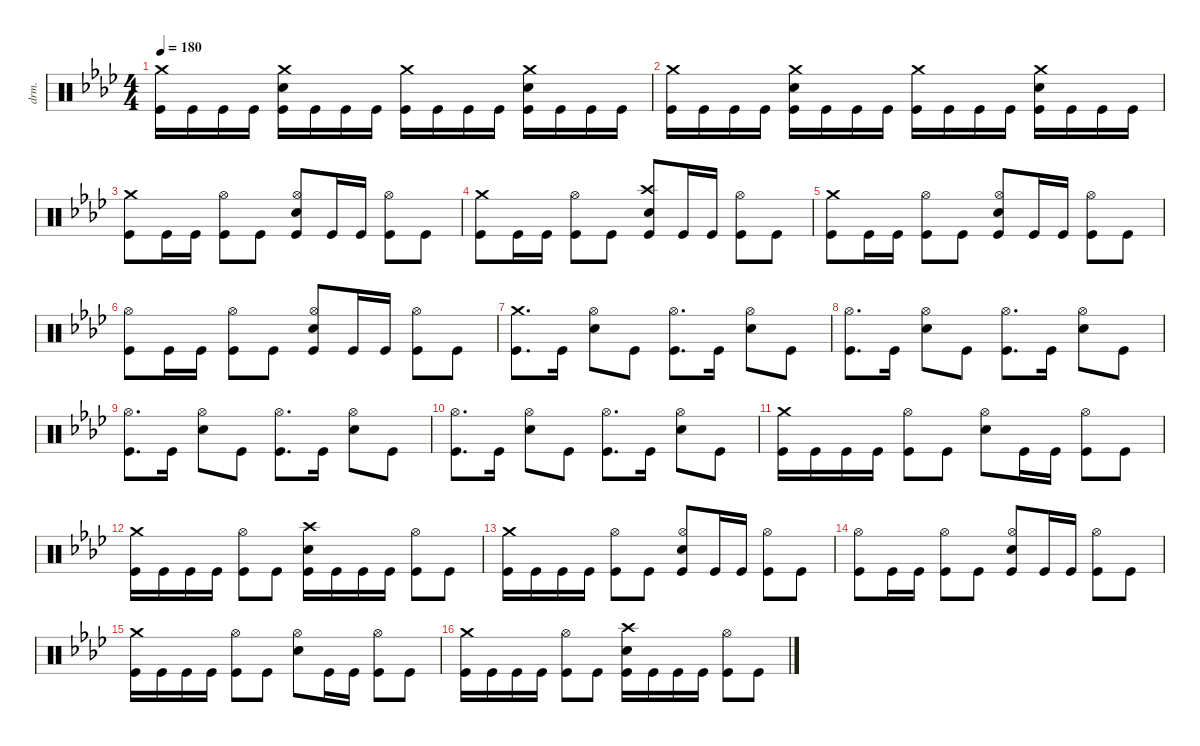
\defaultSystemsLayout 4
\hideDynamics
\bracketExtendMode nobrackets
\otherSystemsTrackNameOrientation horizontal
\track ("Percussion" "drm.") {instrument percussion}
\staff {score}
\articulation defaults
\ts (4 4)
\tempo 180
\clef neutral
\ks fminor
("Crash medium (hit)"{acc forcenatural} "Kick (hit)"{acc forcenatural}).16{dy f beam Down} "Kick (hit)"{acc forcenatural}.16{beam Down} "Kick (hit)"{acc forcenatural}.16{beam Down} "Kick (hit)"{acc forcenatural}.16{beam Down} ("Crash medium (hit)"{acc forcenatural} "Snare (hit) 2"{acc forcenatural} "Kick (hit)"{acc forcenatural}).16{beam Down} "Kick (hit)"{acc forcenatural}.16{beam Down} "Kick (hit)"{acc forcenatural}.16{beam Down} "Kick (hit)"{acc forcenatural}.16{beam Down} ("Crash medium (hit)"{acc forcenatural} "Kick (hit)"{acc forcenatural}).16{beam Down} "Kick (hit)"{acc forcenatural}.16{beam Down} "Kick (hit)"{acc forcenatural}.16{beam Down} "Kick (hit)"{acc forcenatural}.16{beam Down} ("Crash medium (hit)"{acc forcenatural} "Snare (hit) 2"{acc forcenatural} "Kick (hit)"{acc forcenatural}).16{beam Down} "Kick (hit)"{acc forcenatural}.16{beam Down} "Kick (hit)"{acc forcenatural}.16{beam Down} "Kick (hit)"{acc forcenatural}.16{beam Down} |
("Crash medium (hit)"{acc forcenatural} "Kick (hit)"{acc forcenatural}).16{beam Down} "Kick (hit)"{acc forcenatural}.16{beam Down} "Kick (hit)"{acc forcenatural}.16{beam Down} "Kick (hit)"{acc forcenatural}.16{beam Down} ("Crash medium (hit)"{acc forcenatural} "Snare (hit) 2"{acc forcenatural} "Kick (hit)"{acc forcenatural}).16{beam Down} "Kick (hit)"{acc forcenatural}.16{beam Down} "Kick (hit)"{acc forcenatural}.16{beam Down} "Kick (hit)"{acc forcenatural}.16{beam Down} ("Crash medium (hit)"{acc forcenatural} "Kick (hit)"{acc forcenatural}).16{beam Down} "Kick (hit)"{acc forcenatural}.16{beam Down} "Kick (hit)"{acc forcenatural}.16{beam Down} "Kick (hit)"{acc forcenatural}.16{beam Down} ("Crash medium (hit)"{acc forcenatural} "Snare (hit) 2"{acc forcenatural} "Kick (hit)"{acc forcenatural}).16{beam Down} "Kick (hit)"{acc forcenatural}.16{beam Down} "Kick (hit)"{acc forcenatural}.16{beam Down} "Kick (hit)"{acc forcenatural}.16{beam Down} |
("Crash medium (hit)"{acc forcenatural} "Kick (hit)"{acc forcenatural}).8{beam Down} "Kick (hit)"{acc forcenatural}.16{beam Down} "Kick (hit)"{acc forcenatural}.16{beam Down} ("Hi-Hat (open)"{acc forcenatural} "Kick (hit)"{acc forcenatural}).8{beam Down} "Kick (hit)"{acc forcenatural}.8{beam Down} ("Hi-Hat (open)"{acc forcenatural} "Snare (hit) 2"{acc forcenatural} "Kick (hit)"{acc forcenatural}).8{beam Up} "Kick (hit)"{acc forcenatural}.16{beam Up} "Kick (hit)"{acc forcenatural}.16{beam Up} ("Hi-Hat (open)"{acc forcenatural} "Kick (hit)"{acc forcenatural}).8{beam Down} "Kick (hit)"{acc forcenatural}.8{beam Down} |
("Crash medium (hit)"{acc forcenatural} "Kick (hit)"{acc forcenatural}).8{beam Down} "Kick (hit)"{acc forcenatural}.16{beam Down} "Kick (hit)"{acc forcenatural}.16{beam Down} ("Hi-Hat (open)"{acc forcenatural} "Kick (hit)"{acc forcenatural}).8{beam Down} "Kick (hit)"{acc forcenatural}.8{beam Down} ("Crash high (hit)"{acc forcenatural} "Snare (hit) 2"{acc forcenatural} "Kick (hit)"{acc forcenatural}).8{beam Up} "Kick (hit)"{acc forcenatural}.16{beam Up} "Kick (hit)"{acc forcenatural}.16{beam Up} ("Hi-Hat (open)"{acc forcenatural} "Kick (hit)"{acc forcenatural}).8{beam Down} "Kick (hit)"{acc forcenatural}.8{beam Down} |
("Crash medium (hit)"{acc forcenatural} "Kick (hit)"{acc forcenatural}).8{beam Down} "Kick (hit)"{acc forcenatural}.16{beam Down} "Kick (hit)"{acc forcenatural}.16{beam Down} ("Hi-Hat (open)"{acc forcenatural} "Kick (hit)"{acc forcenatural}).8{beam Down} "Kick (hit)"{acc forcenatural}.8{beam Down} ("Hi-Hat (open)"{acc forcenatural} "Snare (hit) 2"{acc forcenatural} "Kick (hit)"{acc forcenatural}).8{beam Up} "Kick (hit)"{acc forcenatural}.16{beam Up} "Kick (hit)"{acc forcenatural}.16{beam Up} ("Hi-Hat (open)"{acc forcenatural} "Kick (hit)"{acc forcenatural}).8{beam Down} "Kick (hit)"{acc forcenatural}.8{beam Down} |
("Hi-Hat (open)"{acc forcenatural} "Kick (hit)"{acc forcenatural}).8{beam Down} "Kick (hit)"{acc forcenatural}.16{beam Down} "Kick (hit)"{acc forcenatural}.16{beam Down} ("Hi-Hat (open)"{acc forcenatural} "Kick (hit)"{acc forcenatural}).8{beam Down} "Kick (hit)"{acc forcenatural}.8{beam Down} ("Hi-Hat (open)"{acc forcenatural} "Snare (hit) 2"{acc forcenatural} "Kick (hit)"{acc forcenatural}).8{beam Up} "Kick (hit)"{acc forcenatural}.16{beam Up} "Kick (hit)"{acc forcenatural}.16{beam Up} ("Hi-Hat (open)"{acc forcenatural} "Kick (hit)"{acc forcenatural}).8{beam Down} "Kick (hit)"{acc forcenatural}.8{beam Down} |
("Crash medium (hit)"{acc forcenatural} "Kick (hit)"{acc forcenatural}).8{d beam Down} "Kick (hit)"{acc forcenatural}.16{beam Down} ("Hi-Hat (open)"{acc forcenatural} "Snare (hit) 2"{acc forcenatural}).8{beam Down} "Kick (hit)"{acc forcenatural}.8{beam Down} ("Hi-Hat (open)"{acc forcenatural} "Kick (hit)"{acc forcenatural}).8{d beam Down} "Kick (hit)"{acc forcenatural}.16{beam Down} ("Hi-Hat (open)"{acc forcenatural} "Snare (hit) 2"{acc forcenatural}).8{beam Down} "Kick (hit)"{acc forcenatural}.8{beam Down} |
("Hi-Hat (open)"{acc forcenatural} "Kick (hit)"{acc forcenatural}).8{d beam Down} "Kick (hit)"{acc forcenatural}.16{beam Down} ("Hi-Hat (open)"{acc forcenatural} "Snare (hit) 2"{acc forcenatural}).8{beam Down} "Kick (hit)"{acc forcenatural}.8{beam Down} ("Hi-Hat (open)"{acc forcenatural} "Kick (hit)"{acc forcenatural}).8{d beam Down} "Kick (hit)"{acc forcenatural}.16{beam Down} ("Hi-Hat (open)"{acc forcenatural} "Snare (hit) 2"{acc forcenatural}).8{beam Down} "Kick (hit)"{acc forcenatural}.8{beam Down} |
("Hi-Hat (open)"{acc forcenatural} "Kick (hit)"{acc forcenatural}).8{d beam Down} "Kick (hit)"{acc forcenatural}.16{beam Down} ("Hi-Hat (open)"{acc forcenatural} "Snare (hit) 2"{acc forcenatural}).8{beam Down} "Kick (hit)"{acc forcenatural}.8{beam Down} ("Hi-Hat (open)"{acc forcenatural} "Kick (hit)"{acc forcenatural}).8{d beam Down} "Kick (hit)"{acc forcenatural}.16{beam Down} ("Hi-Hat (open)"{acc forcenatural} "Snare (hit) 2"{acc forcenatural}).8{beam Down} "Kick (hit)"{acc forcenatural}.8{beam Down} |
("Hi-Hat (open)"{acc forcenatural} "Kick (hit)"{acc forcenatural}).8{d beam Down} "Kick (hit)"{acc forcenatural}.16{beam Down} ("Hi-Hat (open)"{acc forcenatural} "Snare (hit) 2"{acc forcenatural}).8{beam Down} "Kick (hit)"{acc forcenatural}.8{beam Down} ("Hi-Hat (open)"{acc forcenatural} "Kick (hit)"{acc forcenatural}).8{d beam Down} "Kick (hit)"{acc forcenatural}.16{beam Down} ("Hi-Hat (open)"{acc forcenatural} "Snare (hit) 2"{acc forcenatural}).8{beam Down} "Kick (hit)"{acc forcenatural}.8{beam Down} |
("Crash medium (hit)"{acc forcenatural} "Kick (hit)"{acc forcenatural}).16{beam Down} "Kick (hit)"{acc forcenatural}.16{beam Down} "Kick (hit)"{acc forcenatural}.16{beam Down} "Kick (hit)"{acc forcenatural}.16{beam Down} ("Hi-Hat (open)"{acc forcenatural} "Kick (hit)"{acc forcenatural}).8{beam Down} "Kick (hit)"{acc forcenatural}.8{beam Down} ("Hi-Hat (open)"{acc forcenatural} "Snare (hit) 2"{acc forcenatural}).8{beam Down} "Kick (hit)"{acc forcenatural}.16{beam Down} "Kick (hit)"{acc forcenatural}.16{beam Down} ("Hi-Hat (open)"{acc forcenatural} "Kick (hit)"{acc forcenatural}).8{beam Down} "Kick (hit)"{acc forcenatural}.8{beam Down} |
("Crash medium (hit)"{acc forcenatural} "Kick (hit)"{acc forcenatural}).16{beam Down} "Kick (hit)"{acc forcenatural}.16{beam Down} "Kick (hit)"{acc forcenatural}.16{beam Down} "Kick (hit)"{acc forcenatural}.16{beam Down} ("Hi-Hat (open)"{acc forcenatural} "Kick (hit)"{acc forcenatural}).8{beam Down} "Kick (hit)"{acc forcenatural}.8{beam Down} ("Crash high (hit)"{acc forcenatural} "Snare (hit) 2"{acc forcenatural} "Kick (hit)"{acc forcenatural}).16{beam Down} "Kick (hit)"{acc forcenatural}.16{beam Down} "Kick (hit)"{acc forcenatural}.16{beam Down} "Kick (hit)"{acc forcenatural}.16{beam Down} ("Hi-Hat (open)"{acc forcenatural} "Kick (hit)"{acc forcenatural}).8{beam Down} "Kick (hit)"{acc forcenatural}.8{beam Down} |
("Crash medium (hit)"{acc forcenatural} "Kick (hit)"{acc forcenatural}).16{beam Down} "Kick (hit)"{acc forcenatural}.16{beam Down} "Kick (hit)"{acc forcenatural}.16{beam Down} "Kick (hit)"{acc forcenatural}.16{beam Down} ("Hi-Hat (open)"{acc forcenatural} "Kick (hit)"{acc forcenatural}).8{beam Down} "Kick (hit)"{acc forcenatural}.8{beam Down} ("Hi-Hat (open)"{acc forcenatural} "Snare (hit) 2"{acc forcenatural} "Kick (hit)"{acc forcenatural}).8{beam Up} "Kick (hit)"{acc forcenatural}.16{beam Up} "Kick (hit)"{acc forcenatural}.16{beam Up} ("Hi-Hat (open)"{acc forcenatural} "Kick (hit)"{acc forcenatural}).8{beam Down} "Kick (hit)"{acc forcenatural}.8{beam Down} |
("Hi-Hat (open)"{acc forcenatural} "Kick (hit)"{acc forcenatural}).8{beam Down} "Kick (hit)"{acc forcenatural}.16{beam Down} "Kick (hit)"{acc forcenatural}.16{beam Down} ("Hi-Hat (open)"{acc forcenatural} "Kick (hit)"{acc forcenatural}).8{beam Down} "Kick (hit)"{acc forcenatural}.8{beam Down} ("Hi-Hat (open)"{acc forcenatural} "Snare (hit) 2"{acc forcenatural} "Kick (hit)"{acc forcenatural}).8{beam Up} "Kick (hit)"{acc forcenatural}.16{beam Up} "Kick (hit)"{acc forcenatural}.16{beam Up} ("Hi-Hat (open)"{acc forcenatural} "Kick (hit)"{acc forcenatural}).8{beam Down} "Kick (hit)"{acc forcenatural}.8{beam Down} |
("Crash medium (hit)"{acc forcenatural} "Kick (hit)"{acc forcenatural}).16{beam Down} "Kick (hit)"{acc forcenatural}.16{beam Down} "Kick (hit)"{acc forcenatural}.16{beam Down} "Kick (hit)"{acc forcenatural}.16{beam Down} ("Hi-Hat (open)"{acc forcenatural} "Kick (hit)"{acc forcenatural}).8{beam Down} "Kick (hit)"{acc forcenatural}.8{beam Down} ("Hi-Hat (open)"{acc forcenatural} "Snare (hit) 2"{acc forcenatural}).8{beam Down} "Kick (hit)"{acc forcenatural}.16{beam Down} "Kick (hit)"{acc forcenatural}.16{beam Down} ("Hi-Hat (open)"{acc forcenatural} "Kick (hit)"{acc forcenatural}).8{beam Down} "Kick (hit)"{acc forcenatural}.8{beam Down} |
("Crash medium (hit)"{acc forcenatural} "Kick (hit)"{acc forcenatural}).16{beam Down} "Kick (hit)"{acc forcenatural}.16{beam Down} "Kick (hit)"{acc forcenatural}.16{beam Down} "Kick (hit)"{acc forcenatural}.16{beam Down} ("Hi-Hat (open)"{acc forcenatural} "Kick (hit)"{acc forcenatural}).8{beam Down} "Kick (hit)"{acc forcenatural}.8{beam Down} ("Crash high (hit)"{acc forcenatural} "Snare (hit) 2"{acc forcenatural} "Kick (hit)"{acc forcenatural}).16{beam Down} "Kick (hit)"{acc forcenatural}.16{beam Down} "Kick (hit)"{acc forcenatural}.16{beam Down} "Kick (hit)"{acc forcenatural}.16{beam Down} ("Hi-Hat (open)"{acc forcenatural} "Kick (hit)"{acc forcenatural}).8{beam Down} "Kick (hit)"{acc forcenatural}.8{beam Down}
